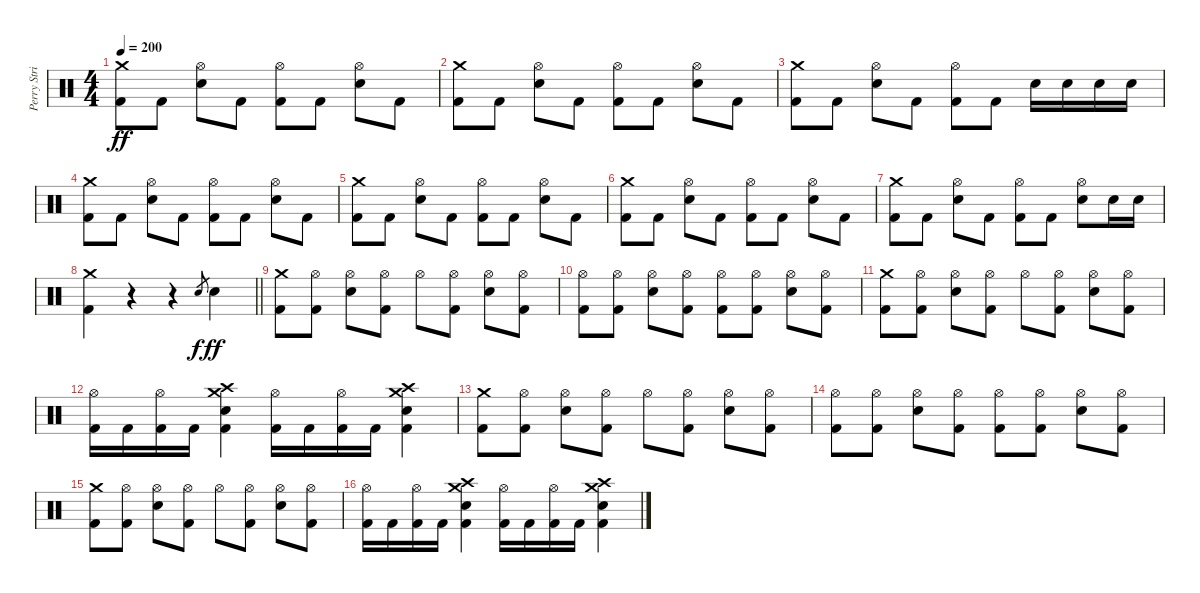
\track ("Perry Strickland" "Perry Stri") {instrument percussion}
\staff {score}
\articulation defaults
\ts (4 4)
\tempo 200
\clef neutral
\ks c
("Crash medium (hit)" "Kick (hit) 2").8{dy ff} "Kick (hit) 2".8 ("Hi-Hat (open)" "Snare (hit) 2").8 "Kick (hit) 2".8 ("Hi-Hat (open)" "Kick (hit) 2").8 "Kick (hit) 2".8 ("Hi-Hat (open)" "Snare (hit) 2").8 "Kick (hit) 2".8 |
("Crash medium (hit)" "Kick (hit) 2").8 "Kick (hit) 2".8 ("Hi-Hat (open)" "Snare (hit) 2").8 "Kick (hit) 2".8 ("Hi-Hat (open)" "Kick (hit) 2").8 "Kick (hit) 2".8 ("Hi-Hat (open)" "Snare (hit) 2").8 "Kick (hit) 2".8 |
("Crash medium (hit)" "Kick (hit) 2").8 "Kick (hit) 2".8 ("Hi-Hat (open)" "Snare (hit) 2").8 "Kick (hit) 2".8 ("Hi-Hat (open)" "Kick (hit) 2").8 "Kick (hit) 2".8 "Snare (hit) 2".16 "Snare (hit) 2".16 "Snare (hit) 2".16 "Snare (hit) 2".16 |
("Crash medium (hit)" "Kick (hit) 2").8 "Kick (hit) 2".8 ("Hi-Hat (open)" "Snare (hit) 2").8 "Kick (hit) 2".8 ("Hi-Hat (open)" "Kick (hit) 2").8 "Kick (hit) 2".8 ("Hi-Hat (open)" "Snare (hit) 2").8 "Kick (hit) 2".8 |
("Crash medium (hit)" "Kick (hit) 2").8 "Kick (hit) 2".8 ("Hi-Hat (open)" "Snare (hit) 2").8 "Kick (hit) 2".8 ("Hi-Hat (open)" "Kick (hit) 2").8 "Kick (hit) 2".8 ("Hi-Hat (open)" "Snare (hit) 2").8 "Kick (hit) 2".8 |
("Crash medium (hit)" "Kick (hit) 2").8 "Kick (hit) 2".8 ("Hi-Hat (open)" "Snare (hit) 2").8 "Kick (hit) 2".8 ("Hi-Hat (open)" "Kick (hit) 2").8 "Kick (hit) 2".8 ("Hi-Hat (open)" "Snare (hit) 2").8 "Kick (hit) 2".8 |
("Crash medium (hit)" "Kick (hit) 2").8 "Kick (hit) 2".8 ("Hi-Hat (open)" "Snare (hit) 2").8 "Kick (hit) 2".8 ("Hi-Hat (open)" "Kick (hit) 2").8 "Kick (hit) 2".8 ("Hi-Hat (open)" "Snare (hit) 2").8 "Snare (hit) 2".16 "Snare (hit) 2".16 |
\barLineRight lightlight
("Crash medium (hit)" "Kick (hit) 2").4 r.4 r.4 "Snare (hit) 2".8{gr dy f} "Snare (hit) 2".4{dy ff} |
("Crash medium (hit)" "Kick (hit) 2").8 ("Hi-Hat (open)" "Kick (hit) 2").8 ("Hi-Hat (open)" "Snare (hit) 2").8 ("Hi-Hat (open)" "Kick (hit) 2").8 "Hi-Hat (open)".8 ("Hi-Hat (open)" "Kick (hit) 2").8 ("Hi-Hat (open)" "Snare (hit) 2").8 ("Hi-Hat (open)" "Kick (hit) 2").8 |
("Hi-Hat (open)" "Kick (hit) 2").8 ("Hi-Hat (open)" "Kick (hit) 2").8 ("Hi-Hat (open)" "Snare (hit) 2").8 ("Hi-Hat (open)" "Kick (hit) 2").8 ("Hi-Hat (open)" "Kick (hit) 2").8 ("Hi-Hat (open)" "Kick (hit) 2").8 ("Hi-Hat (open)" "Snare (hit) 2").8 ("Hi-Hat (open)" "Kick (hit) 2").8 |
("Crash medium (hit)" "Kick (hit) 2").8 ("Hi-Hat (open)" "Kick (hit) 2").8 ("Hi-Hat (open)" "Snare (hit) 2").8 ("Hi-Hat (open)" "Kick (hit) 2").8 "Hi-Hat (open)".8 ("Hi-Hat (open)" "Kick (hit) 2").8 ("Hi-Hat (open)" "Snare (hit) 2").8 ("Hi-Hat (open)" "Kick (hit) 2").8 |
("Hi-Hat (open)" "Kick (hit) 2").16 "Kick (hit) 2".16 ("Hi-Hat (open)" "Kick (hit) 2").16 "Kick (hit) 2".16 ("Crash high (hit)" "Crash medium (hit)" "Snare (hit) 2" "Kick (hit) 2").4 ("Hi-Hat (open)" "Kick (hit) 2").16 "Kick (hit) 2".16 ("Hi-Hat (open)" "Kick (hit) 2").16 "Kick (hit) 2".16 ("Crash high (hit)" "Crash medium (hit)" "Snare (hit) 2" "Kick (hit) 2").4 |
("Crash medium (hit)" "Kick (hit) 2").8 ("Hi-Hat (open)" "Kick (hit) 2").8 ("Hi-Hat (open)" "Snare (hit) 2").8 ("Hi-Hat (open)" "Kick (hit) 2").8 "Hi-Hat (open)".8 ("Hi-Hat (open)" "Kick (hit) 2").8 ("Hi-Hat (open)" "Snare (hit) 2").8 ("Hi-Hat (open)" "Kick (hit) 2").8 |
("Hi-Hat (open)" "Kick (hit) 2").8 ("Hi-Hat (open)" "Kick (hit) 2").8 ("Hi-Hat (open)" "Snare (hit) 2").8 ("Hi-Hat (open)" "Kick (hit) 2").8 ("Hi-Hat (open)" "Kick (hit) 2").8 ("Hi-Hat (open)" "Kick (hit) 2").8 ("Hi-Hat (open)" "Snare (hit) 2").8 ("Hi-Hat (open)" "Kick (hit) 2").8 |
("Crash medium (hit)" "Kick (hit) 2").8 ("Hi-Hat (open)" "Kick (hit) 2").8 ("Hi-Hat (open)" "Snare (hit) 2").8 ("Hi-Hat (open)" "Kick (hit) 2").8 "Hi-Hat (open)".8 ("Hi-Hat (open)" "Kick (hit) 2").8 ("Hi-Hat (open)" "Snare (hit) 2").8 ("Hi-Hat (open)" "Kick (hit) 2").8 |
("Hi-Hat (open)" "Kick (hit) 2").16 "Kick (hit) 2".16 ("Hi-Hat (open)" "Kick (hit) 2").16 "Kick (hit) 2".16 ("Crash high (hit)" "Crash medium (hit)" "Snare (hit) 2" "Kick (hit) 2").4 ("Hi-Hat (open)" "Kick (hit) 2").16 "Kick (hit) 2".16 ("Hi-Hat (open)" "Kick (hit) 2").16 "Kick (hit) 2".16 ("Crash high (hit)" "Crash medium (hit)" "Snare (hit) 2" "Kick (hit) 2").4
